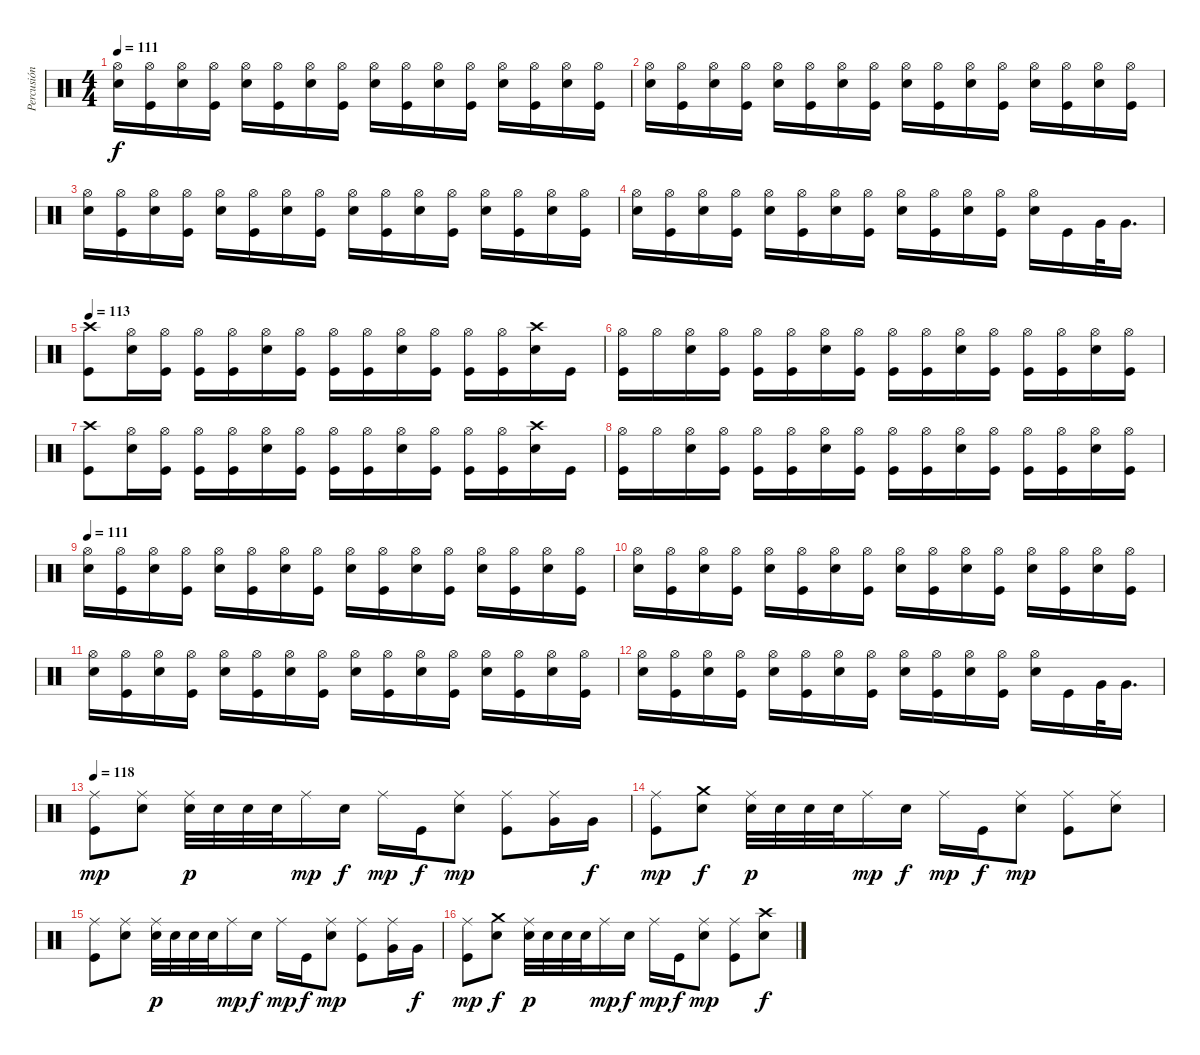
\track ("Percusión" "Percusión") {instrument percussion}
\staff {score}
\articulation defaults
\ts (4 4)
\tempo 111
\clef neutral
\ks c
("Hi-Hat (open)" "Snare (hit) 2").16{dy f} ("Hi-Hat (open)" "Kick (hit)").16 ("Hi-Hat (open)" "Snare (hit) 2").16 ("Hi-Hat (open)" "Kick (hit)").16 ("Hi-Hat (open)" "Snare (hit) 2").16 ("Hi-Hat (open)" "Kick (hit)").16 ("Hi-Hat (open)" "Snare (hit) 2").16 ("Hi-Hat (open)" "Kick (hit)").16 ("Hi-Hat (open)" "Snare (hit) 2").16 ("Hi-Hat (open)" "Kick (hit)").16 ("Hi-Hat (open)" "Snare (hit) 2").16 ("Hi-Hat (open)" "Kick (hit)").16 ("Hi-Hat (open)" "Snare (hit) 2").16 ("Hi-Hat (open)" "Kick (hit)").16 ("Hi-Hat (open)" "Snare (hit) 2").16 ("Hi-Hat (open)" "Kick (hit)").16 |
("Hi-Hat (open)" "Snare (hit) 2").16 ("Hi-Hat (open)" "Kick (hit)").16 ("Hi-Hat (open)" "Snare (hit) 2").16 ("Hi-Hat (open)" "Kick (hit)").16 ("Hi-Hat (open)" "Snare (hit) 2").16 ("Hi-Hat (open)" "Kick (hit)").16 ("Hi-Hat (open)" "Snare (hit) 2").16 ("Hi-Hat (open)" "Kick (hit)").16 ("Hi-Hat (open)" "Snare (hit) 2").16 ("Hi-Hat (open)" "Kick (hit)").16 ("Hi-Hat (open)" "Snare (hit) 2").16 ("Hi-Hat (open)" "Kick (hit)").16 ("Hi-Hat (open)" "Snare (hit) 2").16 ("Hi-Hat (open)" "Kick (hit)").16 ("Hi-Hat (open)" "Snare (hit) 2").16 ("Hi-Hat (open)" "Kick (hit)").16 |
("Hi-Hat (open)" "Snare (hit) 2").16 ("Hi-Hat (open)" "Kick (hit)").16 ("Hi-Hat (open)" "Snare (hit) 2").16 ("Hi-Hat (open)" "Kick (hit)").16 ("Hi-Hat (open)" "Snare (hit) 2").16 ("Hi-Hat (open)" "Kick (hit)").16 ("Hi-Hat (open)" "Snare (hit) 2").16 ("Hi-Hat (open)" "Kick (hit)").16 ("Hi-Hat (open)" "Snare (hit) 2").16 ("Hi-Hat (open)" "Kick (hit)").16 ("Hi-Hat (open)" "Snare (hit) 2").16 ("Hi-Hat (open)" "Kick (hit)").16 ("Hi-Hat (open)" "Snare (hit) 2").16 ("Hi-Hat (open)" "Kick (hit)").16 ("Hi-Hat (open)" "Snare (hit) 2").16 ("Hi-Hat (open)" "Kick (hit)").16 |
("Hi-Hat (open)" "Snare (hit) 2").16 ("Hi-Hat (open)" "Kick (hit)").16 ("Hi-Hat (open)" "Snare (hit) 2").16 ("Hi-Hat (open)" "Kick (hit)").16 ("Hi-Hat (open)" "Snare (hit) 2").16 ("Hi-Hat (open)" "Kick (hit)").16 ("Hi-Hat (open)" "Snare (hit) 2").16 ("Hi-Hat (open)" "Kick (hit)").16 ("Hi-Hat (open)" "Snare (hit) 2").16 ("Hi-Hat (open)" "Kick (hit)").16 ("Hi-Hat (open)" "Snare (hit) 2").16 ("Hi-Hat (open)" "Kick (hit)").16 ("Hi-Hat (open)" "Snare (hit) 2").16 "Kick (hit)".16 "Very Low Tom (hit)".32 "Very Low Tom (hit)".16{d} |
\tempo 113
("Crash high (hit)" "Kick (hit)").8 ("Hi-Hat (open)" "Snare (hit) 2").16 ("Hi-Hat (open)" "Kick (hit)").16 ("Hi-Hat (open)" "Kick (hit)").16 ("Hi-Hat (open)" "Kick (hit)").16 ("Hi-Hat (open)" "Snare (hit) 2").16 ("Hi-Hat (open)" "Kick (hit)").16 ("Hi-Hat (open)" "Kick (hit)").16 ("Hi-Hat (open)" "Kick (hit)").16 ("Hi-Hat (open)" "Snare (hit) 2").16 ("Hi-Hat (open)" "Kick (hit)").16 ("Hi-Hat (open)" "Kick (hit)").16 ("Hi-Hat (open)" "Kick (hit)").16 ("Crash high (hit)" "Snare (hit) 2").16 "Kick (hit)".16 |
("Hi-Hat (open)" "Kick (hit)").16 "Hi-Hat (open)".16 ("Hi-Hat (open)" "Snare (hit) 2").16 ("Hi-Hat (open)" "Kick (hit)").16 ("Hi-Hat (open)" "Kick (hit)").16 ("Hi-Hat (open)" "Kick (hit)").16 ("Hi-Hat (open)" "Snare (hit) 2").16 ("Hi-Hat (open)" "Kick (hit)").16 ("Hi-Hat (open)" "Kick (hit)").16 ("Hi-Hat (open)" "Kick (hit)").16 ("Hi-Hat (open)" "Snare (hit) 2").16 ("Hi-Hat (open)" "Kick (hit)").16 ("Hi-Hat (open)" "Kick (hit)").16 ("Hi-Hat (open)" "Kick (hit)").16 ("Hi-Hat (open)" "Snare (hit) 2").16 ("Hi-Hat (open)" "Kick (hit)").16 |
("Crash high (hit)" "Kick (hit)").8 ("Hi-Hat (open)" "Snare (hit) 2").16 ("Hi-Hat (open)" "Kick (hit)").16 ("Hi-Hat (open)" "Kick (hit)").16 ("Hi-Hat (open)" "Kick (hit)").16 ("Hi-Hat (open)" "Snare (hit) 2").16 ("Hi-Hat (open)" "Kick (hit)").16 ("Hi-Hat (open)" "Kick (hit)").16 ("Hi-Hat (open)" "Kick (hit)").16 ("Hi-Hat (open)" "Snare (hit) 2").16 ("Hi-Hat (open)" "Kick (hit)").16 ("Hi-Hat (open)" "Kick (hit)").16 ("Hi-Hat (open)" "Kick (hit)").16 ("Crash high (hit)" "Snare (hit) 2").16 "Kick (hit)".16 |
("Hi-Hat (open)" "Kick (hit)").16 "Hi-Hat (open)".16 ("Hi-Hat (open)" "Snare (hit) 2").16 ("Hi-Hat (open)" "Kick (hit)").16 ("Hi-Hat (open)" "Kick (hit)").16 ("Hi-Hat (open)" "Kick (hit)").16 ("Hi-Hat (open)" "Snare (hit) 2").16 ("Hi-Hat (open)" "Kick (hit)").16 ("Hi-Hat (open)" "Kick (hit)").16 ("Hi-Hat (open)" "Kick (hit)").16 ("Hi-Hat (open)" "Snare (hit) 2").16 ("Hi-Hat (open)" "Kick (hit)").16 ("Hi-Hat (open)" "Kick (hit)").16 ("Hi-Hat (open)" "Kick (hit)").16 ("Hi-Hat (open)" "Snare (hit) 2").16 ("Hi-Hat (open)" "Kick (hit)").16 |
\tempo 111
("Hi-Hat (open)" "Snare (hit) 2").16 ("Hi-Hat (open)" "Kick (hit)").16 ("Hi-Hat (open)" "Snare (hit) 2").16 ("Hi-Hat (open)" "Kick (hit)").16 ("Hi-Hat (open)" "Snare (hit) 2").16 ("Hi-Hat (open)" "Kick (hit)").16 ("Hi-Hat (open)" "Snare (hit) 2").16 ("Hi-Hat (open)" "Kick (hit)").16 ("Hi-Hat (open)" "Snare (hit) 2").16 ("Hi-Hat (open)" "Kick (hit)").16 ("Hi-Hat (open)" "Snare (hit) 2").16 ("Hi-Hat (open)" "Kick (hit)").16 ("Hi-Hat (open)" "Snare (hit) 2").16 ("Hi-Hat (open)" "Kick (hit)").16 ("Hi-Hat (open)" "Snare (hit) 2").16 ("Hi-Hat (open)" "Kick (hit)").16 |
("Hi-Hat (open)" "Snare (hit) 2").16 ("Hi-Hat (open)" "Kick (hit)").16 ("Hi-Hat (open)" "Snare (hit) 2").16 ("Hi-Hat (open)" "Kick (hit)").16 ("Hi-Hat (open)" "Snare (hit) 2").16 ("Hi-Hat (open)" "Kick (hit)").16 ("Hi-Hat (open)" "Snare (hit) 2").16 ("Hi-Hat (open)" "Kick (hit)").16 ("Hi-Hat (open)" "Snare (hit) 2").16 ("Hi-Hat (open)" "Kick (hit)").16 ("Hi-Hat (open)" "Snare (hit) 2").16 ("Hi-Hat (open)" "Kick (hit)").16 ("Hi-Hat (open)" "Snare (hit) 2").16 ("Hi-Hat (open)" "Kick (hit)").16 ("Hi-Hat (open)" "Snare (hit) 2").16 ("Hi-Hat (open)" "Kick (hit)").16 |
("Hi-Hat (open)" "Snare (hit) 2").16 ("Hi-Hat (open)" "Kick (hit)").16 ("Hi-Hat (open)" "Snare (hit) 2").16 ("Hi-Hat (open)" "Kick (hit)").16 ("Hi-Hat (open)" "Snare (hit) 2").16 ("Hi-Hat (open)" "Kick (hit)").16 ("Hi-Hat (open)" "Snare (hit) 2").16 ("Hi-Hat (open)" "Kick (hit)").16 ("Hi-Hat (open)" "Snare (hit) 2").16 ("Hi-Hat (open)" "Kick (hit)").16 ("Hi-Hat (open)" "Snare (hit) 2").16 ("Hi-Hat (open)" "Kick (hit)").16 ("Hi-Hat (open)" "Snare (hit) 2").16 ("Hi-Hat (open)" "Kick (hit)").16 ("Hi-Hat (open)" "Snare (hit) 2").16 ("Hi-Hat (open)" "Kick (hit)").16 |
("Hi-Hat (open)" "Snare (hit) 2").16 ("Hi-Hat (open)" "Kick (hit)").16 ("Hi-Hat (open)" "Snare (hit) 2").16 ("Hi-Hat (open)" "Kick (hit)").16 ("Hi-Hat (open)" "Snare (hit) 2").16 ("Hi-Hat (open)" "Kick (hit)").16 ("Hi-Hat (open)" "Snare (hit) 2").16 ("Hi-Hat (open)" "Kick (hit)").16 ("Hi-Hat (open)" "Snare (hit) 2").16 ("Hi-Hat (open)" "Kick (hit)").16 ("Hi-Hat (open)" "Snare (hit) 2").16 ("Hi-Hat (open)" "Kick (hit)").16 ("Hi-Hat (open)" "Snare (hit) 2").16 "Kick (hit)".16 "Very Low Tom (hit)".32 "Very Low Tom (hit)".16{d} |
\tempo 118
("Ride (middle)" "Kick (hit)").8{dy mp} ("Ride (middle)" "Snare (hit) 2").8 ("Ride (middle)" "Snare (hit) 2").32{dy p} "Snare (hit) 2".32 "Snare (hit) 2".32 "Snare (hit) 2".32 "Ride (middle)".16{dy mp} "Snare (hit) 2".16{dy f} "Ride (middle)".16{dy mp} "Kick (hit)".16{dy f} ("Ride (middle)" "Snare (hit) 2").8{dy mp} ("Ride (middle)" "Kick (hit)").8 ("Ride (middle)" "Very Low Tom (hit)").16 "Very Low Tom (hit)".16{dy f} |
("Ride (middle)" "Kick (hit)").8{dy mp} ("Crash medium (hit)" "Snare (hit) 2").8{dy f} ("Ride (middle)" "Snare (hit) 2").32{dy p} "Snare (hit) 2".32 "Snare (hit) 2".32 "Snare (hit) 2".32 "Ride (middle)".16{dy mp} "Snare (hit) 2".16{dy f} "Ride (middle)".16{dy mp} "Kick (hit)".16{dy f} ("Ride (middle)" "Snare (hit) 2").8{dy mp} ("Ride (middle)" "Kick (hit)").8 ("Ride (middle)" "Snare (hit) 2").8 |
("Ride (middle)" "Kick (hit)").8 ("Ride (middle)" "Snare (hit) 2").8 ("Ride (middle)" "Snare (hit) 2").32{dy p} "Snare (hit) 2".32 "Snare (hit) 2".32 "Snare (hit) 2".32 "Ride (middle)".16{dy mp} "Snare (hit) 2".16{dy f} "Ride (middle)".16{dy mp} "Kick (hit)".16{dy f} ("Ride (middle)" "Snare (hit) 2").8{dy mp} ("Ride (middle)" "Kick (hit)").8 ("Ride (middle)" "Very Low Tom (hit)").16 "Very Low Tom (hit)".16{dy f} |
("Ride (middle)" "Kick (hit)").8{dy mp} ("Crash medium (hit)" "Snare (hit) 2").8{dy f} ("Ride (middle)" "Snare (hit) 2").32{dy p} "Snare (hit) 2".32 "Snare (hit) 2".32 "Snare (hit) 2".32 "Ride (middle)".16{dy mp} "Snare (hit) 2".16{dy f} "Ride (middle)".16{dy mp} "Kick (hit)".16{dy f} ("Ride (middle)" "Snare (hit) 2").8{dy mp} ("Ride (middle)" "Kick (hit)").8 ("Crash high (hit)" "Snare (hit) 2").8{dy f}
